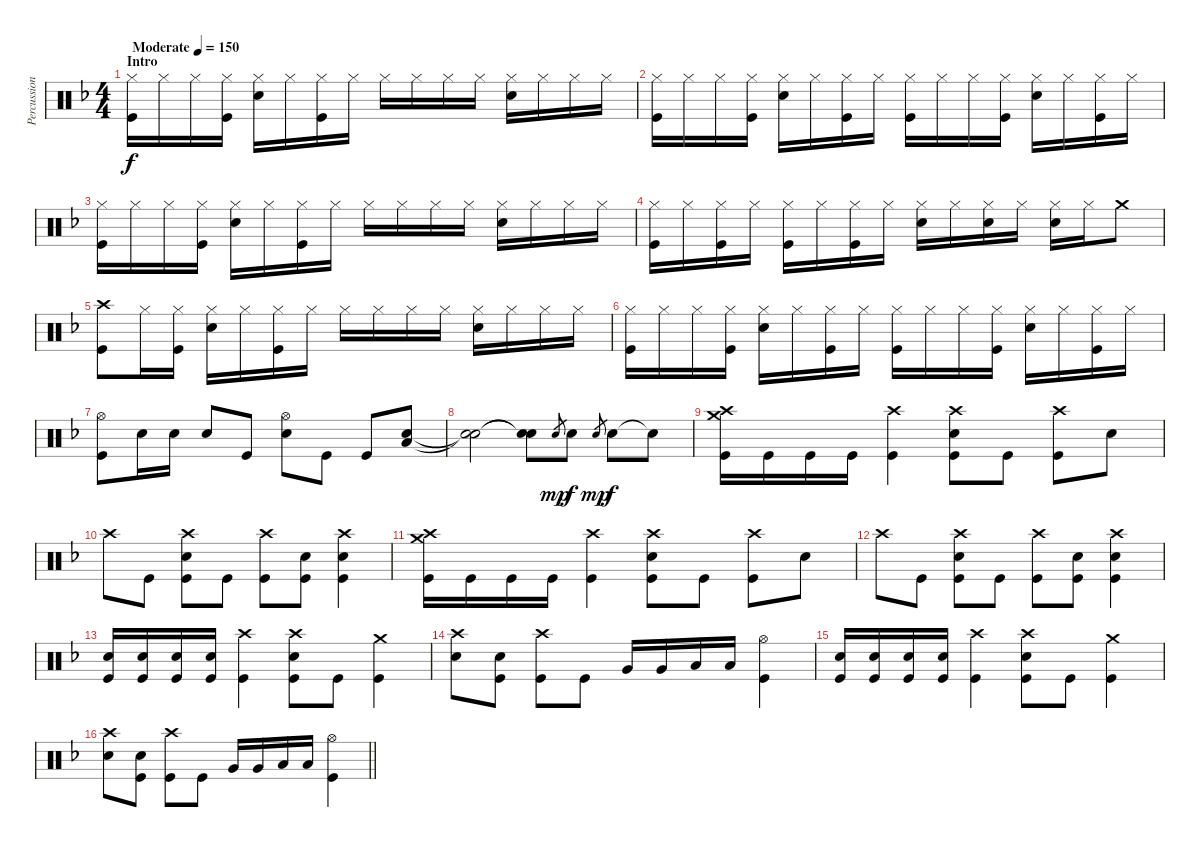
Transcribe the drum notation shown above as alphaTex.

\track ("Percussion" "Percussion") {instrument percussion}
\staff {score}
\articulation defaults
\ts (4 4)
\section ("" "Intro")
\tempo (150 "Moderate")
\clef neutral
\ks f
("Hi-Hat (closed)" "Kick (hit)").16{dy f} "Hi-Hat (closed)".16 "Hi-Hat (closed)".16 ("Hi-Hat (closed)" "Kick (hit)").16 ("Hi-Hat (closed)" "Electric Snare (hit)").16 "Hi-Hat (closed)".16 ("Hi-Hat (closed)" "Kick (hit)").16 "Hi-Hat (closed)".16 "Hi-Hat (closed)".16 "Hi-Hat (closed)".16 "Hi-Hat (closed)".16 "Hi-Hat (closed)".16 ("Hi-Hat (closed)" "Electric Snare (hit)").16 "Hi-Hat (closed)".16 "Hi-Hat (closed)".16 "Hi-Hat (closed)".16 |
("Hi-Hat (closed)" "Kick (hit)").16 "Hi-Hat (closed)".16 "Hi-Hat (closed)".16 ("Hi-Hat (closed)" "Kick (hit)").16 ("Hi-Hat (closed)" "Electric Snare (hit)").16 "Hi-Hat (closed)".16 ("Hi-Hat (closed)" "Kick (hit)").16 "Hi-Hat (closed)".16 ("Hi-Hat (closed)" "Kick (hit)").16 "Hi-Hat (closed)".16 "Hi-Hat (closed)".16 ("Hi-Hat (closed)" "Kick (hit)").16 ("Hi-Hat (closed)" "Electric Snare (hit)").16 "Hi-Hat (closed)".16 ("Hi-Hat (closed)" "Kick (hit)").16 "Hi-Hat (closed)".16 |
("Hi-Hat (closed)" "Kick (hit)").16 "Hi-Hat (closed)".16 "Hi-Hat (closed)".16 ("Hi-Hat (closed)" "Kick (hit)").16 ("Hi-Hat (closed)" "Electric Snare (hit)").16 "Hi-Hat (closed)".16 ("Hi-Hat (closed)" "Kick (hit)").16 "Hi-Hat (closed)".16 "Hi-Hat (closed)".16 "Hi-Hat (closed)".16 "Hi-Hat (closed)".16 "Hi-Hat (closed)".16 ("Hi-Hat (closed)" "Electric Snare (hit)").16 "Hi-Hat (closed)".16 "Hi-Hat (closed)".16 "Hi-Hat (closed)".16 |
("Hi-Hat (closed)" "Kick (hit)").16 "Hi-Hat (closed)".16 ("Hi-Hat (closed)" "Kick (hit)").16 "Hi-Hat (closed)".16 ("Hi-Hat (closed)" "Kick (hit)").16 "Hi-Hat (closed)".16 ("Hi-Hat (closed)" "Kick (hit)").16 "Hi-Hat (closed)".16 ("Hi-Hat (closed)" "Electric Snare (hit)").16 "Hi-Hat (closed)".16 ("Hi-Hat (closed)" "Electric Snare (hit)").16 "Hi-Hat (closed)".16 ("Hi-Hat (closed)" "Electric Snare (hit)").16 "Hi-Hat (closed)".16 "Crash medium (hit)".8 |
("Crash high (hit)" "Kick (hit)").8 "Hi-Hat (closed)".16 ("Hi-Hat (closed)" "Kick (hit)").16 ("Hi-Hat (closed)" "Electric Snare (hit)").16 "Hi-Hat (closed)".16 ("Hi-Hat (closed)" "Kick (hit)").16 "Hi-Hat (closed)".16 "Hi-Hat (closed)".16 "Hi-Hat (closed)".16 "Hi-Hat (closed)".16 "Hi-Hat (closed)".16 ("Hi-Hat (closed)" "Electric Snare (hit)").16 "Hi-Hat (closed)".16 "Hi-Hat (closed)".16 "Hi-Hat (closed)".16 |
("Hi-Hat (closed)" "Kick (hit)").16 "Hi-Hat (closed)".16 "Hi-Hat (closed)".16 ("Hi-Hat (closed)" "Kick (hit)").16 ("Hi-Hat (closed)" "Electric Snare (hit)").16 "Hi-Hat (closed)".16 ("Hi-Hat (closed)" "Kick (hit)").16 "Hi-Hat (closed)".16 ("Hi-Hat (closed)" "Kick (hit)").16 "Hi-Hat (closed)".16 "Hi-Hat (closed)".16 ("Hi-Hat (closed)" "Kick (hit)").16 ("Hi-Hat (closed)" "Electric Snare (hit)").16 "Hi-Hat (closed)".16 ("Hi-Hat (closed)" "Kick (hit)").16 "Hi-Hat (closed)".16 |
("Hi-Hat (open)" "Kick (hit)").8 "Electric Snare (hit)".16 "Electric Snare (hit)".16 "Electric Snare (hit)".8 "Kick (hit)".8 ("Hi-Hat (open)" "Electric Snare (hit)").8 "Kick (hit)".8 "Kick (hit)".8 ("Electric Snare (hit)" "Low Floor Tom (hit)").8 |
("Snare (hit)"{t} "Snare (hit)"{t}).2 ("Snare (hit)"{t} "Snare (hit)"{t}).8 "Electric Snare (hit)".8{gr dy mp} "Electric Snare (hit)".8{dy f} "Electric Snare (hit)".8{gr dy mp} "Electric Snare (hit)".8{dy f} "Snare (hit)"{t}.8 |
("Crash high (hit)" "Crash medium (hit)" "Kick (hit)").16 "Kick (hit)".16 "Kick (hit)".16 "Kick (hit)".16 ("Crash high (hit)" "Kick (hit)").4 ("Crash high (hit)" "Electric Snare (hit)" "Kick (hit)").8 "Kick (hit)".8 ("Crash high (hit)" "Kick (hit)").8 "Electric Snare (hit)".8 |
"Crash high (hit)".8 "Kick (hit)".8 ("Crash high (hit)" "Electric Snare (hit)" "Kick (hit)").8 "Kick (hit)".8 ("Crash high (hit)" "Kick (hit)").8 ("Electric Snare (hit)" "Kick (hit)").8 ("Crash high (hit)" "Electric Snare (hit)" "Kick (hit)").4 |
("Crash high (hit)" "Crash medium (hit)" "Kick (hit)").16 "Kick (hit)".16 "Kick (hit)".16 "Kick (hit)".16 ("Crash high (hit)" "Kick (hit)").4 ("Crash high (hit)" "Electric Snare (hit)" "Kick (hit)").8 "Kick (hit)".8 ("Crash high (hit)" "Kick (hit)").8 "Electric Snare (hit)".8 |
"Crash high (hit)".8 "Kick (hit)".8 ("Crash high (hit)" "Electric Snare (hit)" "Kick (hit)").8 "Kick (hit)".8 ("Crash high (hit)" "Kick (hit)").8 ("Electric Snare (hit)" "Kick (hit)").8 ("Crash high (hit)" "Electric Snare (hit)" "Kick (hit)").4 |
("Electric Snare (hit)" "Kick (hit)").16 ("Electric Snare (hit)" "Kick (hit)").16 ("Electric Snare (hit)" "Kick (hit)").16 ("Electric Snare (hit)" "Kick (hit)").16 ("Crash high (hit)" "Kick (hit)").4 ("Crash high (hit)" "Electric Snare (hit)" "Kick (hit)").8 "Kick (hit)".8 ("Crash medium (hit)" "Kick (hit)").4 |
("Crash high (hit)" "Electric Snare (hit)").8 ("Electric Snare (hit)" "Kick (hit)").8 ("Crash high (hit)" "Kick (hit)").8 "Kick (hit)".8 "Very Low Tom (hit)".16 "Very Low Tom (hit)".16 "Low Floor Tom (hit)".16 "Low Floor Tom (hit)".16 ("Hi-Hat (open)" "Kick (hit)").4 |
("Electric Snare (hit)" "Kick (hit)").16 ("Electric Snare (hit)" "Kick (hit)").16 ("Electric Snare (hit)" "Kick (hit)").16 ("Electric Snare (hit)" "Kick (hit)").16 ("Crash high (hit)" "Kick (hit)").4 ("Crash high (hit)" "Electric Snare (hit)" "Kick (hit)").8 "Kick (hit)".8 ("Crash medium (hit)" "Kick (hit)").4 |
\barLineRight lightlight
("Crash high (hit)" "Electric Snare (hit)").8 ("Electric Snare (hit)" "Kick (hit)").8 ("Crash high (hit)" "Kick (hit)").8 "Kick (hit)".8 "Very Low Tom (hit)".16 "Very Low Tom (hit)".16 "Low Floor Tom (hit)".16 "Low Floor Tom (hit)".16 ("Hi-Hat (open)" "Kick (hit)").4
